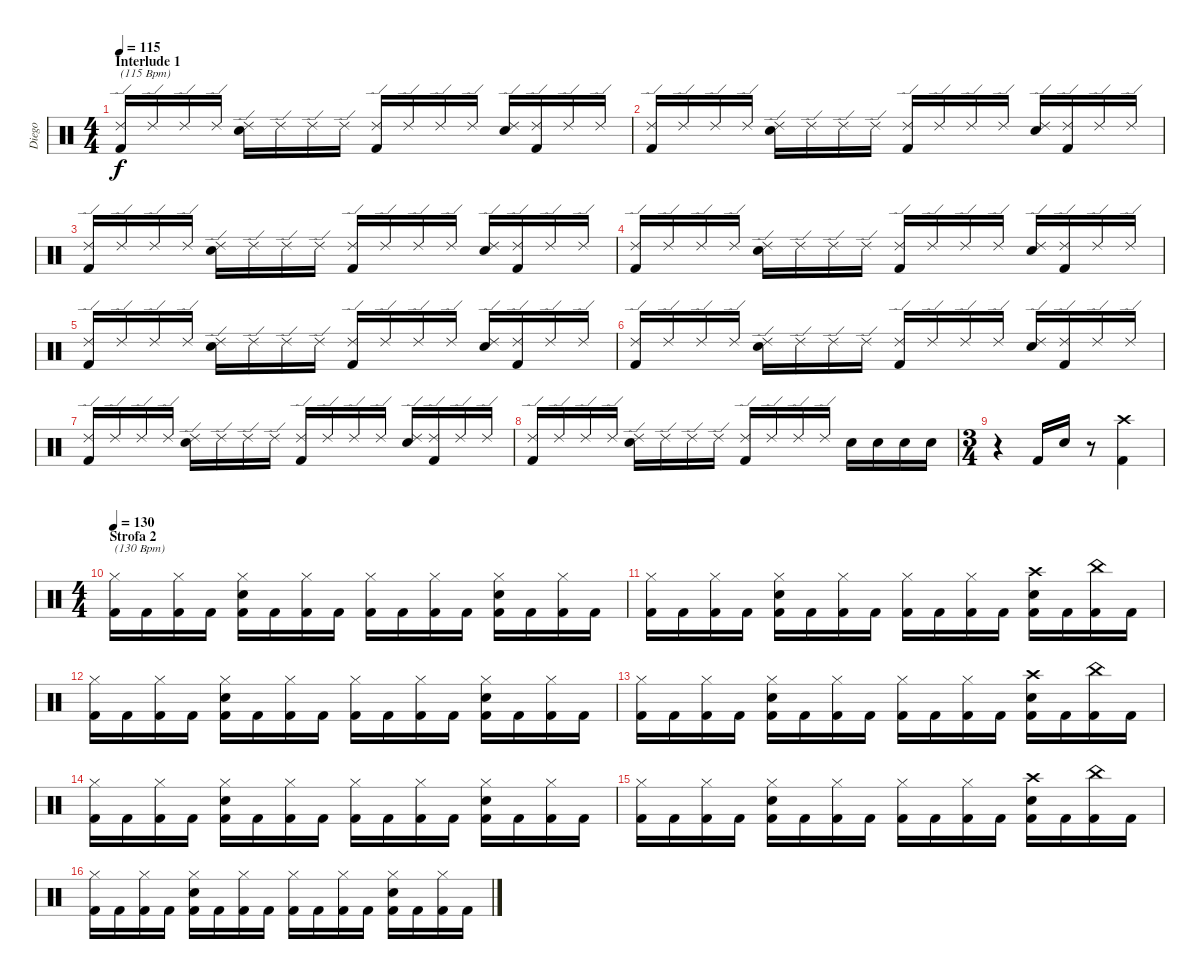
\track ("Diego" "Diego") {instrument percussion}
\staff {score}
\articulation defaults
\ts (4 4)
\section ("" "Interlude 1")
\tempo 115
\clef neutral
\ks c
("Ride (edge) 2" "Kick (hit) 2").16{txt "(115 Bpm)" dy f} "Ride (edge) 2".16 "Ride (edge) 2".16 "Ride (edge) 2".16 ("Ride (edge) 2" "Snare (hit) 2").16 "Ride (edge) 2".16 "Ride (edge) 2".16 "Ride (edge) 2".16 ("Ride (edge) 2" "Kick (hit) 2").16 "Ride (edge) 2".16 "Ride (edge) 2".16 "Ride (edge) 2".16 ("Ride (edge) 2" "Snare (hit) 2").16 ("Ride (edge) 2" "Kick (hit) 2").16 "Ride (edge) 2".16 "Ride (edge) 2".16 |
("Ride (edge) 2" "Kick (hit) 2").16 "Ride (edge) 2".16 "Ride (edge) 2".16 "Ride (edge) 2".16 ("Ride (edge) 2" "Snare (hit) 2").16 "Ride (edge) 2".16 "Ride (edge) 2".16 "Ride (edge) 2".16 ("Ride (edge) 2" "Kick (hit) 2").16 "Ride (edge) 2".16 "Ride (edge) 2".16 "Ride (edge) 2".16 ("Ride (edge) 2" "Snare (hit) 2").16 ("Ride (edge) 2" "Kick (hit) 2").16 "Ride (edge) 2".16 "Ride (edge) 2".16 |
("Ride (edge) 2" "Kick (hit) 2").16 "Ride (edge) 2".16 "Ride (edge) 2".16 "Ride (edge) 2".16 ("Ride (edge) 2" "Snare (hit) 2").16 "Ride (edge) 2".16 "Ride (edge) 2".16 "Ride (edge) 2".16 ("Ride (edge) 2" "Kick (hit) 2").16 "Ride (edge) 2".16 "Ride (edge) 2".16 "Ride (edge) 2".16 ("Ride (edge) 2" "Snare (hit) 2").16 ("Ride (edge) 2" "Kick (hit) 2").16 "Ride (edge) 2".16 "Ride (edge) 2".16 |
("Ride (edge) 2" "Kick (hit) 2").16 "Ride (edge) 2".16 "Ride (edge) 2".16 "Ride (edge) 2".16 ("Ride (edge) 2" "Snare (hit) 2").16 "Ride (edge) 2".16 "Ride (edge) 2".16 "Ride (edge) 2".16 ("Ride (edge) 2" "Kick (hit) 2").16 "Ride (edge) 2".16 "Ride (edge) 2".16 "Ride (edge) 2".16 ("Ride (edge) 2" "Snare (hit) 2").16 ("Ride (edge) 2" "Kick (hit) 2").16 "Ride (edge) 2".16 "Ride (edge) 2".16 |
("Ride (edge) 2" "Kick (hit) 2").16 "Ride (edge) 2".16 "Ride (edge) 2".16 "Ride (edge) 2".16 ("Ride (edge) 2" "Snare (hit) 2").16 "Ride (edge) 2".16 "Ride (edge) 2".16 "Ride (edge) 2".16 ("Ride (edge) 2" "Kick (hit) 2").16 "Ride (edge) 2".16 "Ride (edge) 2".16 "Ride (edge) 2".16 ("Ride (edge) 2" "Snare (hit) 2").16 ("Ride (edge) 2" "Kick (hit) 2").16 "Ride (edge) 2".16 "Ride (edge) 2".16 |
("Ride (edge) 2" "Kick (hit) 2").16 "Ride (edge) 2".16 "Ride (edge) 2".16 "Ride (edge) 2".16 ("Ride (edge) 2" "Snare (hit) 2").16 "Ride (edge) 2".16 "Ride (edge) 2".16 "Ride (edge) 2".16 ("Ride (edge) 2" "Kick (hit) 2").16 "Ride (edge) 2".16 "Ride (edge) 2".16 "Ride (edge) 2".16 ("Ride (edge) 2" "Snare (hit) 2").16 ("Ride (edge) 2" "Kick (hit) 2").16 "Ride (edge) 2".16 "Ride (edge) 2".16 |
("Ride (edge) 2" "Kick (hit) 2").16 "Ride (edge) 2".16 "Ride (edge) 2".16 "Ride (edge) 2".16 ("Ride (edge) 2" "Snare (hit) 2").16 "Ride (edge) 2".16 "Ride (edge) 2".16 "Ride (edge) 2".16 ("Ride (edge) 2" "Kick (hit) 2").16 "Ride (edge) 2".16 "Ride (edge) 2".16 "Ride (edge) 2".16 ("Ride (edge) 2" "Snare (hit) 2").16 ("Ride (edge) 2" "Kick (hit) 2").16 "Ride (edge) 2".16 "Ride (edge) 2".16 |
("Ride (edge) 2" "Kick (hit) 2").16 "Ride (edge) 2".16 "Ride (edge) 2".16 "Ride (edge) 2".16 ("Ride (edge) 2" "Snare (hit) 2").16 "Ride (edge) 2".16 "Ride (edge) 2".16 "Ride (edge) 2".16 ("Ride (edge) 2" "Kick (hit) 2").16 "Ride (edge) 2".16 "Ride (edge) 2".16 "Ride (edge) 2".16 "Snare (hit) 2".16 "Snare (hit) 2".16 "Snare (hit) 2".16 "Snare (hit) 2".16 |
\ts (3 4)
r.4 "Kick (hit) 2".16 "Snare (hit) 2".16 r.8 ("Crash high (hit)" "Kick (hit) 2").4 |
\ts (4 4)
\section ("" "Strofa 2")
\tempo 130
("Hi-Hat (closed)" "Kick (hit) 2").16{txt "(130 Bpm)"} "Kick (hit) 2".16 ("Hi-Hat (closed)" "Kick (hit) 2").16 "Kick (hit) 2".16 ("Hi-Hat (closed)" "Snare (hit) 2" "Kick (hit) 2").16 "Kick (hit) 2".16 ("Hi-Hat (closed)" "Kick (hit) 2").16 "Kick (hit) 2".16 ("Hi-Hat (closed)" "Kick (hit) 2").16 "Kick (hit) 2".16 ("Hi-Hat (closed)" "Kick (hit) 2").16 "Kick (hit) 2".16 ("Hi-Hat (closed)" "Snare (hit) 2" "Kick (hit) 2").16 "Kick (hit) 2".16 ("Hi-Hat (closed)" "Kick (hit) 2").16 "Kick (hit) 2".16 |
("Hi-Hat (closed)" "Kick (hit) 2").16 "Kick (hit) 2".16 ("Hi-Hat (closed)" "Kick (hit) 2").16 "Kick (hit) 2".16 ("Hi-Hat (closed)" "Snare (hit) 2" "Kick (hit) 2").16 "Kick (hit) 2".16 ("Hi-Hat (closed)" "Kick (hit) 2").16 "Kick (hit) 2".16 ("Hi-Hat (closed)" "Kick (hit) 2").16 "Kick (hit) 2".16 ("Hi-Hat (closed)" "Kick (hit) 2").16 "Kick (hit) 2".16 ("Crash high (hit)" "Snare (hit) 2" "Kick (hit) 2").16 "Kick (hit) 2".16 ("China (hit)" "Kick (hit) 2").16 "Kick (hit) 2".16 |
("Hi-Hat (closed)" "Kick (hit) 2").16 "Kick (hit) 2".16 ("Hi-Hat (closed)" "Kick (hit) 2").16 "Kick (hit) 2".16 ("Hi-Hat (closed)" "Snare (hit) 2" "Kick (hit) 2").16 "Kick (hit) 2".16 ("Hi-Hat (closed)" "Kick (hit) 2").16 "Kick (hit) 2".16 ("Hi-Hat (closed)" "Kick (hit) 2").16 "Kick (hit) 2".16 ("Hi-Hat (closed)" "Kick (hit) 2").16 "Kick (hit) 2".16 ("Hi-Hat (closed)" "Snare (hit) 2" "Kick (hit) 2").16 "Kick (hit) 2".16 ("Hi-Hat (closed)" "Kick (hit) 2").16 "Kick (hit) 2".16 |
("Hi-Hat (closed)" "Kick (hit) 2").16 "Kick (hit) 2".16 ("Hi-Hat (closed)" "Kick (hit) 2").16 "Kick (hit) 2".16 ("Hi-Hat (closed)" "Snare (hit) 2" "Kick (hit) 2").16 "Kick (hit) 2".16 ("Hi-Hat (closed)" "Kick (hit) 2").16 "Kick (hit) 2".16 ("Hi-Hat (closed)" "Kick (hit) 2").16 "Kick (hit) 2".16 ("Hi-Hat (closed)" "Kick (hit) 2").16 "Kick (hit) 2".16 ("Crash high (hit)" "Snare (hit) 2" "Kick (hit) 2").16 "Kick (hit) 2".16 ("China (hit)" "Kick (hit) 2").16 "Kick (hit) 2".16 |
("Hi-Hat (closed)" "Kick (hit) 2").16 "Kick (hit) 2".16 ("Hi-Hat (closed)" "Kick (hit) 2").16 "Kick (hit) 2".16 ("Hi-Hat (closed)" "Snare (hit) 2" "Kick (hit) 2").16 "Kick (hit) 2".16 ("Hi-Hat (closed)" "Kick (hit) 2").16 "Kick (hit) 2".16 ("Hi-Hat (closed)" "Kick (hit) 2").16 "Kick (hit) 2".16 ("Hi-Hat (closed)" "Kick (hit) 2").16 "Kick (hit) 2".16 ("Hi-Hat (closed)" "Snare (hit) 2" "Kick (hit) 2").16 "Kick (hit) 2".16 ("Hi-Hat (closed)" "Kick (hit) 2").16 "Kick (hit) 2".16 |
("Hi-Hat (closed)" "Kick (hit) 2").16 "Kick (hit) 2".16 ("Hi-Hat (closed)" "Kick (hit) 2").16 "Kick (hit) 2".16 ("Hi-Hat (closed)" "Snare (hit) 2" "Kick (hit) 2").16 "Kick (hit) 2".16 ("Hi-Hat (closed)" "Kick (hit) 2").16 "Kick (hit) 2".16 ("Hi-Hat (closed)" "Kick (hit) 2").16 "Kick (hit) 2".16 ("Hi-Hat (closed)" "Kick (hit) 2").16 "Kick (hit) 2".16 ("Crash high (hit)" "Snare (hit) 2" "Kick (hit) 2").16 "Kick (hit) 2".16 ("China (hit)" "Kick (hit) 2").16 "Kick (hit) 2".16 |
("Hi-Hat (closed)" "Kick (hit) 2").16 "Kick (hit) 2".16 ("Hi-Hat (closed)" "Kick (hit) 2").16 "Kick (hit) 2".16 ("Hi-Hat (closed)" "Snare (hit) 2" "Kick (hit) 2").16 "Kick (hit) 2".16 ("Hi-Hat (closed)" "Kick (hit) 2").16 "Kick (hit) 2".16 ("Hi-Hat (closed)" "Kick (hit) 2").16 "Kick (hit) 2".16 ("Hi-Hat (closed)" "Kick (hit) 2").16 "Kick (hit) 2".16 ("Hi-Hat (closed)" "Snare (hit) 2" "Kick (hit) 2").16 "Kick (hit) 2".16 ("Hi-Hat (closed)" "Kick (hit) 2").16 "Kick (hit) 2".16
